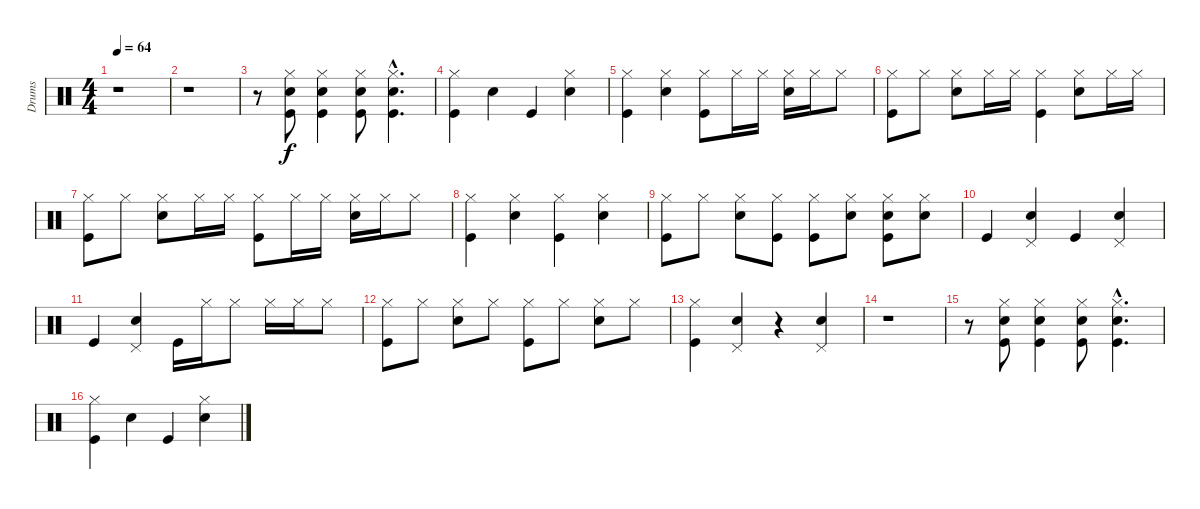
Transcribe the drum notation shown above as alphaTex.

\track ("Drums" "Drums") {instrument percussion}
\staff {score}
\articulation defaults
\ts (4 4)
\tempo 64
\clef neutral
\ks c
r.1{dy f} |
r.1 |
r.8 ("Hi-Hat (closed)" "Snare (hit) 2" "Kick (hit)").8 ("Hi-Hat (closed)" "Snare (hit) 2" "Kick (hit)").4 ("Hi-Hat (closed)" "Snare (hit) 2" "Kick (hit)").8 ("Hi-Hat (closed)"{hac} "Snare (hit) 2"{hac} "Kick (hit)"{hac}).4{d} |
("Hi-Hat (closed)" "Kick (hit)").4 "Snare (hit) 2".4 "Kick (hit)".4 ("Hi-Hat (closed)" "Snare (hit) 2").4 |
("Hi-Hat (closed)" "Kick (hit)").4 ("Hi-Hat (closed)" "Snare (hit) 2").4 ("Hi-Hat (closed)" "Kick (hit)").8 "Hi-Hat (closed)".16 "Hi-Hat (closed)".16 ("Hi-Hat (closed)" "Snare (hit) 2").16 "Hi-Hat (closed)".16 "Hi-Hat (closed)".8 |
("Hi-Hat (closed)" "Kick (hit)").8 "Hi-Hat (closed)".8 ("Hi-Hat (closed)" "Snare (hit) 2").8 "Hi-Hat (closed)".16 "Hi-Hat (closed)".16 ("Hi-Hat (closed)" "Kick (hit)").4 ("Hi-Hat (closed)" "Snare (hit) 2").8 "Hi-Hat (closed)".16 "Hi-Hat (closed)".16 |
("Hi-Hat (closed)" "Kick (hit)").8 "Hi-Hat (closed)".8 ("Hi-Hat (closed)" "Snare (hit) 2").8 "Hi-Hat (closed)".16 "Hi-Hat (closed)".16 ("Hi-Hat (closed)" "Kick (hit)").8 "Hi-Hat (closed)".16 "Hi-Hat (closed)".16 ("Hi-Hat (closed)" "Snare (hit) 2").16 "Hi-Hat (closed)".16 "Hi-Hat (closed)".8 |
("Hi-Hat (closed)" "Kick (hit)").4 ("Hi-Hat (closed)" "Snare (hit) 2").4 ("Hi-Hat (closed)" "Kick (hit)").4 ("Hi-Hat (closed)" "Snare (hit) 2").4 |
("Hi-Hat (closed)" "Kick (hit)").8 "Hi-Hat (closed)".8 ("Hi-Hat (closed)" "Snare (hit) 2").8 ("Hi-Hat (closed)" "Kick (hit)").8 ("Hi-Hat (closed)" "Kick (hit)").8 ("Hi-Hat (closed)" "Snare (hit) 2").8 ("Hi-Hat (closed)" "Snare (hit) 2" "Kick (hit)").8 ("Hi-Hat (closed)" "Snare (hit) 2").8 |
"Kick (hit)".4 ("Pedal Hi-Hat (hit)" "Snare (hit) 2").4 "Kick (hit)".4 ("Pedal Hi-Hat (hit)" "Snare (hit) 2").4 |
"Kick (hit)".4 ("Pedal Hi-Hat (hit)" "Snare (hit) 2").4 "Kick (hit)".16 "Hi-Hat (closed)".16 "Hi-Hat (closed)".8 "Hi-Hat (closed)".16 "Hi-Hat (closed)".16 "Hi-Hat (closed)".8 |
("Hi-Hat (closed)" "Kick (hit)").8 "Hi-Hat (closed)".8 ("Hi-Hat (closed)" "Snare (hit) 2").8 "Hi-Hat (closed)".8 ("Hi-Hat (closed)" "Kick (hit)").8 "Hi-Hat (closed)".8 ("Hi-Hat (closed)" "Snare (hit) 2").8 "Hi-Hat (closed)".8 |
("Hi-Hat (closed)" "Kick (hit)").4 ("Pedal Hi-Hat (hit)" "Snare (hit) 2").4 r.4 ("Pedal Hi-Hat (hit)" "Snare (hit) 2").4 |
r.1 |
r.8 ("Hi-Hat (closed)" "Snare (hit) 2" "Kick (hit)").8 ("Hi-Hat (closed)" "Snare (hit) 2" "Kick (hit)").4 ("Hi-Hat (closed)" "Snare (hit) 2" "Kick (hit)").8 ("Hi-Hat (closed)"{hac} "Snare (hit) 2"{hac} "Kick (hit)"{hac}).4{d} |
("Hi-Hat (closed)" "Kick (hit)").4 "Snare (hit) 2".4 "Kick (hit)".4 ("Hi-Hat (closed)" "Snare (hit) 2").4
